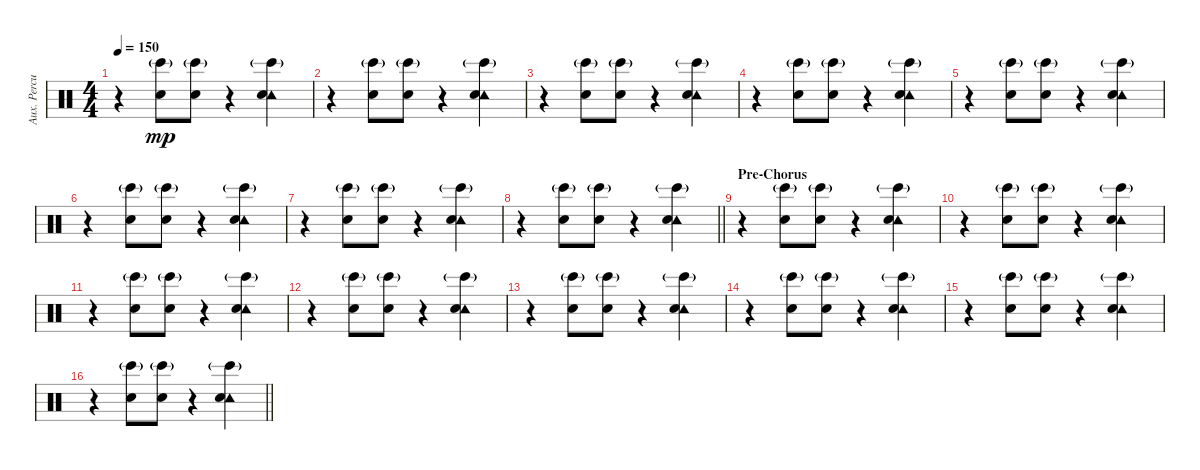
\track ("Aux. Percussion" "Aux. Percu") {instrument percussion}
\staff {score}
\articulation defaults
\ts (4 4)
\tempo 150
\clef neutral
\ks c
r.4{dy mp} ("Hand Clap (hit)" "Bongo High (hit)"{g}).8 ("Hand Clap (hit)" "Bongo High (hit)"{g}).8 r.4 ("Tambourine (hit)" "Hand Clap (hit)" "Bongo High (hit)"{g}).4 |
r.4 ("Hand Clap (hit)" "Bongo High (hit)"{g}).8 ("Hand Clap (hit)" "Bongo High (hit)"{g}).8 r.4 ("Tambourine (hit)" "Hand Clap (hit)" "Bongo High (hit)"{g}).4 |
r.4 ("Hand Clap (hit)" "Bongo High (hit)"{g}).8 ("Hand Clap (hit)" "Bongo High (hit)"{g}).8 r.4 ("Tambourine (hit)" "Hand Clap (hit)" "Bongo High (hit)"{g}).4 |
r.4 ("Hand Clap (hit)" "Bongo High (hit)"{g}).8 ("Hand Clap (hit)" "Bongo High (hit)"{g}).8 r.4 ("Tambourine (hit)" "Hand Clap (hit)" "Bongo High (hit)"{g}).4 |
r.4 ("Hand Clap (hit)" "Bongo High (hit)"{g}).8 ("Hand Clap (hit)" "Bongo High (hit)"{g}).8 r.4 ("Tambourine (hit)" "Hand Clap (hit)" "Bongo High (hit)"{g}).4 |
r.4 ("Hand Clap (hit)" "Bongo High (hit)"{g}).8 ("Hand Clap (hit)" "Bongo High (hit)"{g}).8 r.4 ("Tambourine (hit)" "Hand Clap (hit)" "Bongo High (hit)"{g}).4 |
r.4 ("Hand Clap (hit)" "Bongo High (hit)"{g}).8 ("Hand Clap (hit)" "Bongo High (hit)"{g}).8 r.4 ("Tambourine (hit)" "Hand Clap (hit)" "Bongo High (hit)"{g}).4 |
\barLineRight lightlight
r.4 ("Hand Clap (hit)" "Bongo High (hit)"{g}).8 ("Hand Clap (hit)" "Bongo High (hit)"{g}).8 r.4 ("Tambourine (hit)" "Hand Clap (hit)" "Bongo High (hit)"{g}).4 |
\section ("" "Pre-Chorus")
r.4 ("Hand Clap (hit)" "Bongo High (hit)"{g}).8 ("Hand Clap (hit)" "Bongo High (hit)"{g}).8 r.4 ("Tambourine (hit)" "Hand Clap (hit)" "Bongo High (hit)"{g}).4 |
r.4 ("Hand Clap (hit)" "Bongo High (hit)"{g}).8 ("Hand Clap (hit)" "Bongo High (hit)"{g}).8 r.4 ("Tambourine (hit)" "Hand Clap (hit)" "Bongo High (hit)"{g}).4 |
r.4 ("Hand Clap (hit)" "Bongo High (hit)"{g}).8 ("Hand Clap (hit)" "Bongo High (hit)"{g}).8 r.4 ("Tambourine (hit)" "Hand Clap (hit)" "Bongo High (hit)"{g}).4 |
r.4 ("Hand Clap (hit)" "Bongo High (hit)"{g}).8 ("Hand Clap (hit)" "Bongo High (hit)"{g}).8 r.4 ("Tambourine (hit)" "Hand Clap (hit)" "Bongo High (hit)"{g}).4 |
r.4 ("Hand Clap (hit)" "Bongo High (hit)"{g}).8 ("Hand Clap (hit)" "Bongo High (hit)"{g}).8 r.4 ("Tambourine (hit)" "Hand Clap (hit)" "Bongo High (hit)"{g}).4 |
r.4 ("Hand Clap (hit)" "Bongo High (hit)"{g}).8 ("Hand Clap (hit)" "Bongo High (hit)"{g}).8 r.4 ("Tambourine (hit)" "Hand Clap (hit)" "Bongo High (hit)"{g}).4 |
r.4 ("Hand Clap (hit)" "Bongo High (hit)"{g}).8 ("Hand Clap (hit)" "Bongo High (hit)"{g}).8 r.4 ("Tambourine (hit)" "Hand Clap (hit)" "Bongo High (hit)"{g}).4 |
\barLineRight lightlight
r.4 ("Hand Clap (hit)" "Bongo High (hit)"{g}).8 ("Hand Clap (hit)" "Bongo High (hit)"{g}).8 r.4 ("Tambourine (hit)" "Hand Clap (hit)" "Bongo High (hit)"{g}).4
